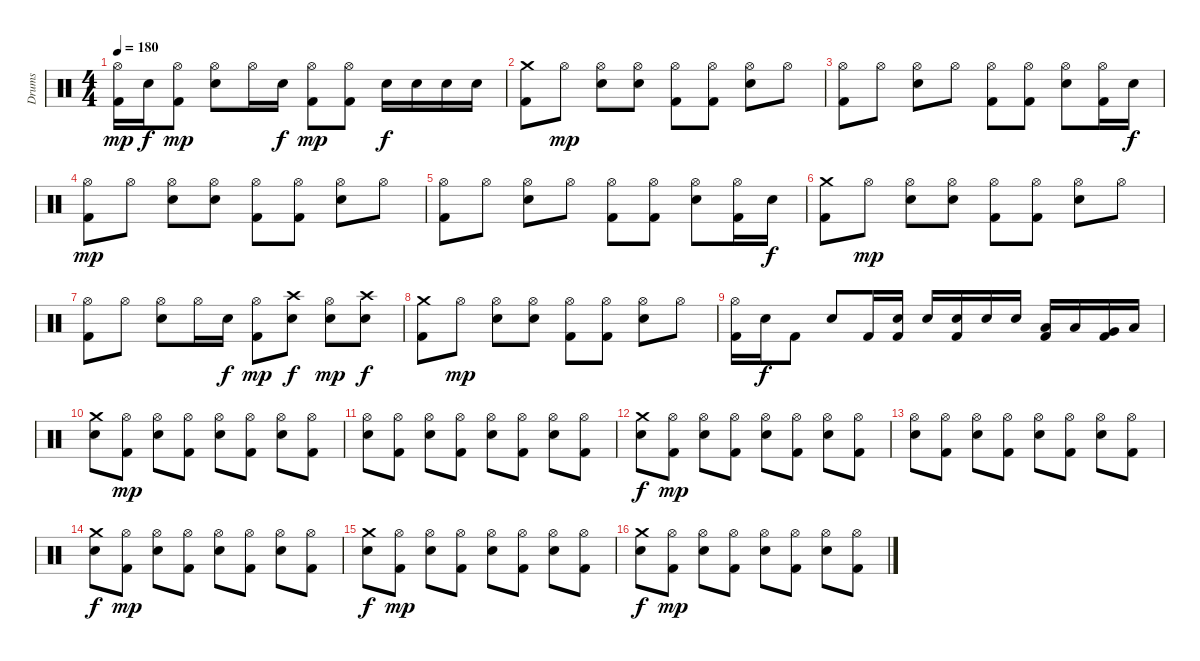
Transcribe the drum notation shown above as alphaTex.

\track ("Drums" "Drums") {instrument percussion}
\staff {score}
\articulation defaults
\ts (4 4)
\tempo 180
\clef neutral
\ks c
("Hi-Hat (open)" "Kick (hit) 2").16{dy mp} "Snare (hit) 2".16{dy f} ("Hi-Hat (open)" "Kick (hit) 2").8{dy mp} ("Hi-Hat (open)" "Snare (hit) 2").8 "Hi-Hat (open)".16 "Snare (hit) 2".16{dy f} ("Hi-Hat (open)" "Kick (hit) 2").8{dy mp} ("Hi-Hat (open)" "Kick (hit) 2").8 "Snare (hit) 2".16{dy f} "Snare (hit) 2".16 "Snare (hit) 2".16 "Snare (hit) 2".16 |
("Crash medium (hit)" "Kick (hit) 2").8 "Hi-Hat (open)".8{dy mp} ("Hi-Hat (open)" "Snare (hit) 2").8 ("Hi-Hat (open)" "Snare (hit) 2").8 ("Hi-Hat (open)" "Kick (hit) 2").8 ("Hi-Hat (open)" "Kick (hit) 2").8 ("Hi-Hat (open)" "Snare (hit) 2").8 "Hi-Hat (open)".8 |
("Hi-Hat (open)" "Kick (hit) 2").8 "Hi-Hat (open)".8 ("Hi-Hat (open)" "Snare (hit) 2").8 "Hi-Hat (open)".8 ("Hi-Hat (open)" "Kick (hit) 2").8 ("Hi-Hat (open)" "Kick (hit) 2").8 ("Hi-Hat (open)" "Snare (hit) 2").8 ("Hi-Hat (open)" "Kick (hit) 2").16 "Snare (hit) 2".16{dy f} |
("Hi-Hat (open)" "Kick (hit) 2").8{dy mp} "Hi-Hat (open)".8 ("Hi-Hat (open)" "Snare (hit) 2").8 ("Hi-Hat (open)" "Snare (hit) 2").8 ("Hi-Hat (open)" "Kick (hit) 2").8 ("Hi-Hat (open)" "Kick (hit) 2").8 ("Hi-Hat (open)" "Snare (hit) 2").8 "Hi-Hat (open)".8 |
("Hi-Hat (open)" "Kick (hit) 2").8 "Hi-Hat (open)".8 ("Hi-Hat (open)" "Snare (hit) 2").8 "Hi-Hat (open)".8 ("Hi-Hat (open)" "Kick (hit) 2").8 ("Hi-Hat (open)" "Kick (hit) 2").8 ("Hi-Hat (open)" "Snare (hit) 2").8 ("Hi-Hat (open)" "Kick (hit) 2").16 "Snare (hit) 2".16{dy f} |
("Crash medium (hit)" "Kick (hit) 2").8 "Hi-Hat (open)".8{dy mp} ("Hi-Hat (open)" "Snare (hit) 2").8 ("Hi-Hat (open)" "Snare (hit) 2").8 ("Hi-Hat (open)" "Kick (hit) 2").8 ("Hi-Hat (open)" "Kick (hit) 2").8 ("Hi-Hat (open)" "Snare (hit) 2").8 "Hi-Hat (open)".8 |
("Hi-Hat (open)" "Kick (hit) 2").8 "Hi-Hat (open)".8 ("Hi-Hat (open)" "Snare (hit) 2").8 "Hi-Hat (open)".16 "Snare (hit) 2".16{dy f} ("Hi-Hat (open)" "Kick (hit) 2").8{dy mp} ("Crash high (hit)" "Snare (hit) 2").8{dy f} ("Hi-Hat (open)" "Snare (hit) 2").8{dy mp} ("Crash high (hit)" "Snare (hit) 2").8{dy f} |
("Crash medium (hit)" "Kick (hit) 2").8 "Hi-Hat (open)".8{dy mp} ("Hi-Hat (open)" "Snare (hit) 2").8 ("Hi-Hat (open)" "Snare (hit) 2").8 ("Hi-Hat (open)" "Kick (hit) 2").8 ("Hi-Hat (open)" "Kick (hit) 2").8 ("Hi-Hat (open)" "Snare (hit) 2").8 "Hi-Hat (open)".8 |
("Hi-Hat (open)" "Kick (hit) 2").16 "Snare (hit) 2".16{dy f} "Kick (hit) 2".8 "Snare (hit) 2".8 "Kick (hit) 2".16 ("Snare (hit) 2" "Kick (hit) 2").16 "Snare (hit) 2".16 ("Snare (hit) 2" "Kick (hit) 2").16 "Snare (hit) 2".16 "Snare (hit) 2".16 ("Low Tom (hit)" "Kick (hit) 2").16 "Low Tom (hit)".16 ("Very Low Tom (hit)" "Kick (hit) 2").16 "Low Floor Tom (hit)".16 |
("Crash medium (hit)" "Snare (hit) 2").8 ("Hi-Hat (open)" "Kick (hit) 2").8{dy mp} ("Hi-Hat (open)" "Snare (hit) 2").8 ("Hi-Hat (open)" "Kick (hit) 2").8 ("Hi-Hat (open)" "Snare (hit) 2").8 ("Hi-Hat (open)" "Kick (hit) 2").8 ("Hi-Hat (open)" "Snare (hit) 2").8 ("Hi-Hat (open)" "Kick (hit) 2").8 |
("Hi-Hat (open)" "Snare (hit) 2").8 ("Hi-Hat (open)" "Kick (hit) 2").8 ("Hi-Hat (open)" "Snare (hit) 2").8 ("Hi-Hat (open)" "Kick (hit) 2").8 ("Hi-Hat (open)" "Snare (hit) 2").8 ("Hi-Hat (open)" "Kick (hit) 2").8 ("Hi-Hat (open)" "Snare (hit) 2").8 ("Hi-Hat (open)" "Kick (hit) 2").8 |
("Crash medium (hit)" "Snare (hit) 2").8{dy f} ("Hi-Hat (open)" "Kick (hit) 2").8{dy mp} ("Hi-Hat (open)" "Snare (hit) 2").8 ("Hi-Hat (open)" "Kick (hit) 2").8 ("Hi-Hat (open)" "Snare (hit) 2").8 ("Hi-Hat (open)" "Kick (hit) 2").8 ("Hi-Hat (open)" "Snare (hit) 2").8 ("Hi-Hat (open)" "Kick (hit) 2").8 |
("Hi-Hat (open)" "Snare (hit) 2").8 ("Hi-Hat (open)" "Kick (hit) 2").8 ("Hi-Hat (open)" "Snare (hit) 2").8 ("Hi-Hat (open)" "Kick (hit) 2").8 ("Hi-Hat (open)" "Snare (hit) 2").8 ("Hi-Hat (open)" "Kick (hit) 2").8 ("Hi-Hat (open)" "Snare (hit) 2").8 ("Hi-Hat (open)" "Kick (hit) 2").8 |
("Crash medium (hit)" "Snare (hit) 2").8{dy f} ("Hi-Hat (open)" "Kick (hit) 2").8{dy mp} ("Hi-Hat (open)" "Snare (hit) 2").8 ("Hi-Hat (open)" "Kick (hit) 2").8 ("Hi-Hat (open)" "Snare (hit) 2").8 ("Hi-Hat (open)" "Kick (hit) 2").8 ("Hi-Hat (open)" "Snare (hit) 2").8 ("Hi-Hat (open)" "Kick (hit) 2").8 |
("Crash medium (hit)" "Snare (hit) 2").8{dy f} ("Hi-Hat (open)" "Kick (hit) 2").8{dy mp} ("Hi-Hat (open)" "Snare (hit) 2").8 ("Hi-Hat (open)" "Kick (hit) 2").8 ("Hi-Hat (open)" "Snare (hit) 2").8 ("Hi-Hat (open)" "Kick (hit) 2").8 ("Hi-Hat (open)" "Snare (hit) 2").8 ("Hi-Hat (open)" "Kick (hit) 2").8 |
("Crash medium (hit)" "Snare (hit) 2").8{dy f} ("Hi-Hat (open)" "Kick (hit) 2").8{dy mp} ("Hi-Hat (open)" "Snare (hit) 2").8 ("Hi-Hat (open)" "Kick (hit) 2").8 ("Hi-Hat (open)" "Snare (hit) 2").8 ("Hi-Hat (open)" "Kick (hit) 2").8 ("Hi-Hat (open)" "Snare (hit) 2").8 ("Hi-Hat (open)" "Kick (hit) 2").8
